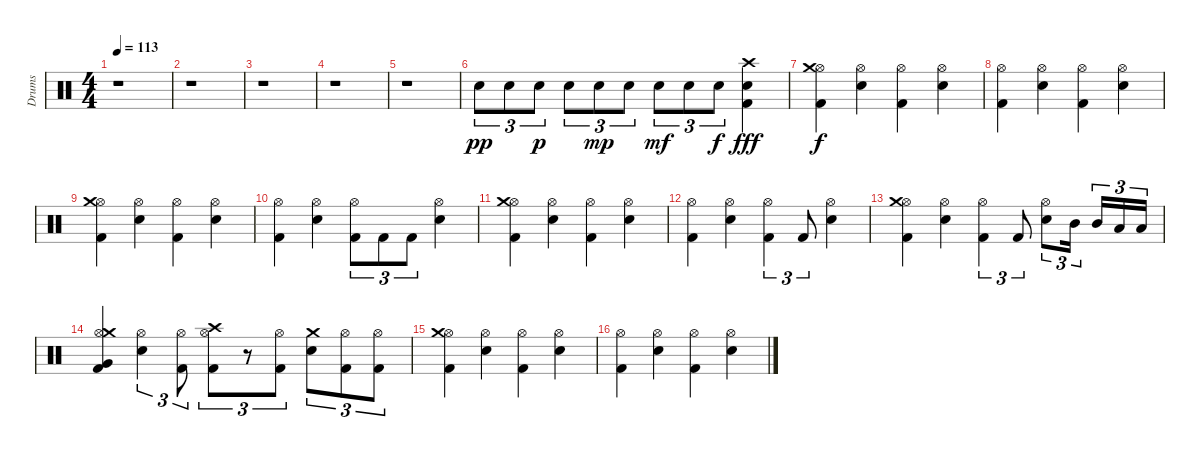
\track ("Drums" "Drums") {instrument percussion}
\staff {score}
\articulation defaults
\ts (4 4)
\tempo 113
\clef neutral
\ks c
r.1{dy pp} |
r.1 |
r.1 |
r.1 |
r.1 |
"Snare (hit) 2".8{tu (3 2)} "Snare (hit) 2".8{tu (3 2)} "Snare (hit) 2".8{tu (3 2) dy p} "Snare (hit) 2".8{tu (3 2)} "Snare (hit) 2".8{tu (3 2) dy mp} "Snare (hit) 2".8{tu (3 2)} "Snare (hit) 2".8{tu (3 2) dy mf} "Snare (hit) 2".8{tu (3 2)} "Snare (hit) 2".8{tu (3 2) dy f} ("Kick (hit) 2" "Snare (hit) 2" "Crash high (hit)").4{dy fff} |
("Kick (hit) 2" "Hi-Hat (open)" "Crash medium (hit)").4{dy f} ("Snare (hit) 2" "Hi-Hat (open)").4 ("Kick (hit) 2" "Hi-Hat (open)").4 ("Snare (hit) 2" "Hi-Hat (open)").4 |
("Kick (hit) 2" "Hi-Hat (open)").4 ("Snare (hit) 2" "Hi-Hat (open)").4 ("Kick (hit) 2" "Hi-Hat (open)").4 ("Snare (hit) 2" "Hi-Hat (open)").4 |
("Kick (hit) 2" "Hi-Hat (open)" "Crash medium (hit)").4 ("Snare (hit) 2" "Hi-Hat (open)").4 ("Kick (hit) 2" "Hi-Hat (open)").4 ("Snare (hit) 2" "Hi-Hat (open)").4 |
("Kick (hit) 2" "Hi-Hat (open)").4 ("Snare (hit) 2" "Hi-Hat (open)").4 ("Kick (hit) 2" "Hi-Hat (open)").8{tu (3 2)} "Kick (hit) 2".8{tu (3 2)} "Kick (hit) 2".8{tu (3 2)} ("Snare (hit) 2" "Hi-Hat (open)").4 |
("Kick (hit) 2" "Hi-Hat (open)" "Crash medium (hit)").4 ("Snare (hit) 2" "Hi-Hat (open)").4 ("Kick (hit) 2" "Hi-Hat (open)").4 ("Snare (hit) 2" "Hi-Hat (open)").4 |
("Kick (hit) 2" "Hi-Hat (open)").4 ("Snare (hit) 2" "Hi-Hat (open)").4 ("Kick (hit) 2" "Hi-Hat (open)").4{tu (3 2)} "Kick (hit) 2".8{tu (3 2)} ("Snare (hit) 2" "Hi-Hat (open)").4 |
("Kick (hit) 2" "Hi-Hat (open)" "Crash medium (hit)").4 ("Snare (hit) 2" "Hi-Hat (open)").4 ("Kick (hit) 2" "Hi-Hat (open)").4{tu (3 2)} "Kick (hit) 2".8{tu (3 2)} ("Snare (hit) 2" "Hi-Hat (open)").8{tu (3 2)} "Mid Tom (hit)".16{tu (3 2)} "Mid Tom (hit)".16{tu (3 2)} "Low Tom (hit)".16{tu (3 2)} "Low Tom (hit)".16{tu (3 2)} |
("Kick (hit) 2" "Very Low Tom (hit)" "Hi-Hat (open)" "Crash medium (hit)").4 ("Snare (hit) 2" "Hi-Hat (open)").4{tu (3 2)} ("Kick (hit) 2" "Hi-Hat (open)").8{tu (3 2)} ("Kick (hit) 2" "Hi-Hat (open)" "Crash high (hit)").8{tu (3 2)} r.8{tu (3 2)} ("Kick (hit) 2" "Hi-Hat (open)").8{tu (3 2)} ("Snare (hit) 2" "Crash medium (hit)").8{tu (3 2)} ("Kick (hit) 2" "Hi-Hat (open)").8{tu (3 2)} ("Kick (hit) 2" "Hi-Hat (open)").8{tu (3 2)} |
("Kick (hit) 2" "Hi-Hat (open)" "Crash medium (hit)").4 ("Snare (hit) 2" "Hi-Hat (open)").4 ("Kick (hit) 2" "Hi-Hat (open)").4 ("Snare (hit) 2" "Hi-Hat (open)").4 |
("Kick (hit) 2" "Hi-Hat (open)").4 ("Snare (hit) 2" "Hi-Hat (open)").4 ("Kick (hit) 2" "Hi-Hat (open)").4 ("Snare (hit) 2" "Hi-Hat (open)").4
